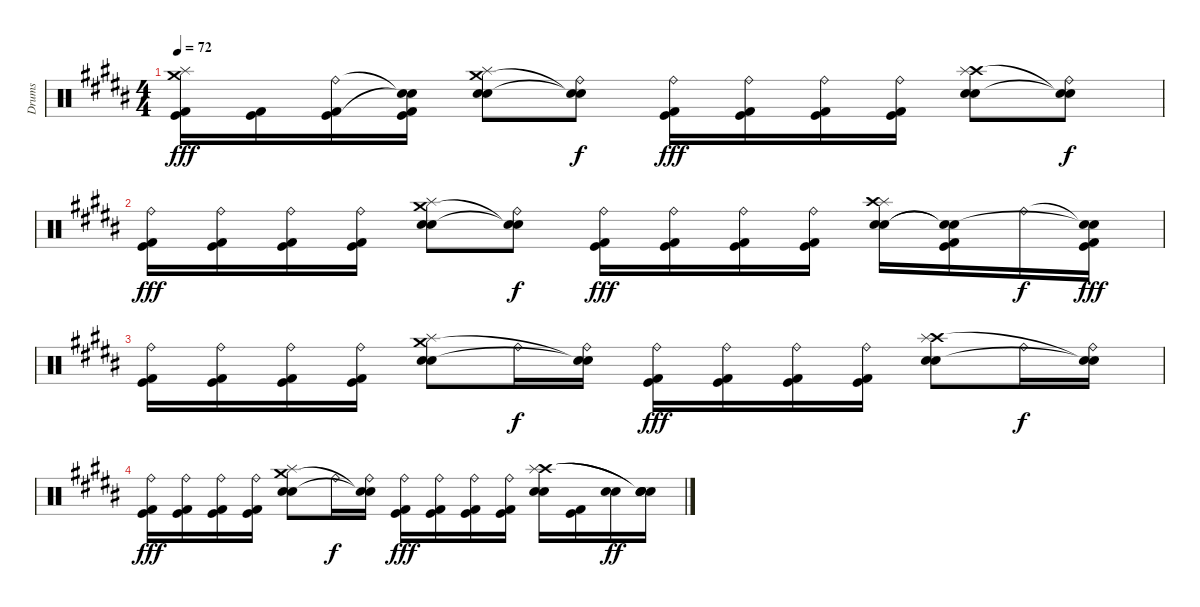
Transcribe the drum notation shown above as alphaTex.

\track ("Drums" "Drums") {instrument percussion}
\staff {score}
\articulation defaults
\ts (4 4)
\tempo 72
\clef neutral
\ks b
("Splash (hit)" "Crash medium (hit)" "Kick (hit)" "Kick (hit) 2").16{dy fff} ("Kick (hit)" "Kick (hit) 2").16 ("Ride (bell)" "Kick (hit)" "Kick (hit) 2").16 ("Snare (hit)"{t} "Snare (hit)"{t} "Kick (hit)" "Kick (hit) 2").16 ("Electric Snare (hit)" "Snare (hit) 2" "Crash medium (hit)" "Splash (hit)").8 ("Ride (bell)" "Snare (hit)"{t} "Snare (hit)"{t}).8{dy f} ("Ride (bell)" "Kick (hit)" "Kick (hit) 2").16{dy fff} ("Ride (bell)" "Kick (hit)" "Kick (hit) 2").16 ("Ride (bell)" "Kick (hit)" "Kick (hit) 2").16 ("Ride (bell)" "Kick (hit)" "Kick (hit) 2").16 ("Electric Snare (hit)" "Snare (hit) 2" "Crash high (hit)" "Splash (hit)").8 ("Ride (bell)" "Snare (hit)"{t} "Snare (hit)"{t}).8{dy f} |
("Ride (bell)" "Kick (hit)" "Kick (hit) 2").16{dy fff} ("Ride (bell)" "Kick (hit)" "Kick (hit) 2").16 ("Ride (bell)" "Kick (hit)" "Kick (hit) 2").16 ("Ride (bell)" "Kick (hit)" "Kick (hit) 2").16 ("Electric Snare (hit)" "Snare (hit) 2" "Crash medium (hit)" "Splash (hit)").8 ("Ride (bell)" "Snare (hit)"{t} "Snare (hit)"{t}).8{dy f} ("Ride (bell)" "Kick (hit)" "Kick (hit) 2").16{dy fff} ("Ride (bell)" "Kick (hit)" "Kick (hit) 2").16 ("Ride (bell)" "Kick (hit)" "Kick (hit) 2").16 ("Ride (bell)" "Kick (hit)" "Kick (hit) 2").16 ("Electric Snare (hit)" "Snare (hit) 2" "Splash (hit)" "Crash high (hit)").16 ("Snare (hit)"{t} "Snare (hit)"{t} "Kick (hit)" "Kick (hit) 2").16 "Ride (bell)".16{dy f} ("Snare (hit)"{t} "Snare (hit)"{t} "Kick (hit)" "Kick (hit) 2").16{dy fff} |
("Ride (bell)" "Kick (hit)" "Kick (hit) 2").16 ("Ride (bell)" "Kick (hit)" "Kick (hit) 2").16 ("Ride (bell)" "Kick (hit)" "Kick (hit) 2").16 ("Ride (bell)" "Kick (hit)" "Kick (hit) 2").16 ("Electric Snare (hit)" "Snare (hit) 2" "Crash medium (hit)" "Splash (hit)").8 "Ride (bell)".16{dy f} ("Ride (bell)" "Snare (hit)"{t} "Snare (hit)"{t}).16 ("Ride (bell)" "Kick (hit)" "Kick (hit) 2").16{dy fff} ("Ride (bell)" "Kick (hit)" "Kick (hit) 2").16 ("Ride (bell)" "Kick (hit)" "Kick (hit) 2").16 ("Ride (bell)" "Kick (hit)" "Kick (hit) 2").16 ("Electric Snare (hit)" "Snare (hit) 2" "Crash high (hit)" "Splash (hit)").8 "Ride (bell)".16{dy f} ("Ride (bell)" "Snare (hit)"{t} "Snare (hit)"{t}).16 |
("Ride (bell)" "Kick (hit)" "Kick (hit) 2").16{dy fff} ("Ride (bell)" "Kick (hit)" "Kick (hit) 2").16 ("Ride (bell)" "Kick (hit)" "Kick (hit) 2").16 ("Ride (bell)" "Kick (hit)" "Kick (hit) 2").16 ("Electric Snare (hit)" "Snare (hit) 2" "Crash medium (hit)" "Splash (hit)").8 "Ride (bell)".16{dy f} ("Ride (bell)" "Snare (hit)"{t} "Snare (hit)"{t}).16 ("Ride (bell)" "Kick (hit)" "Kick (hit) 2").16{dy fff} ("Ride (bell)" "Kick (hit)" "Kick (hit) 2").16 ("Ride (bell)" "Kick (hit)" "Kick (hit) 2").16 ("Ride (bell)" "Kick (hit)" "Kick (hit) 2").16 ("Electric Snare (hit)" "Snare (hit) 2" "Crash high (hit)" "Splash (hit)").16 ("Kick (hit)" "Kick (hit) 2").16 ("Electric Snare (hit)" "Snare (hit) 2").16{dy ff} ("Electric Snare (hit)" "Snare (hit) 2" "Snare (hit) 2"{t} "Snare (hit)"{t}).16
